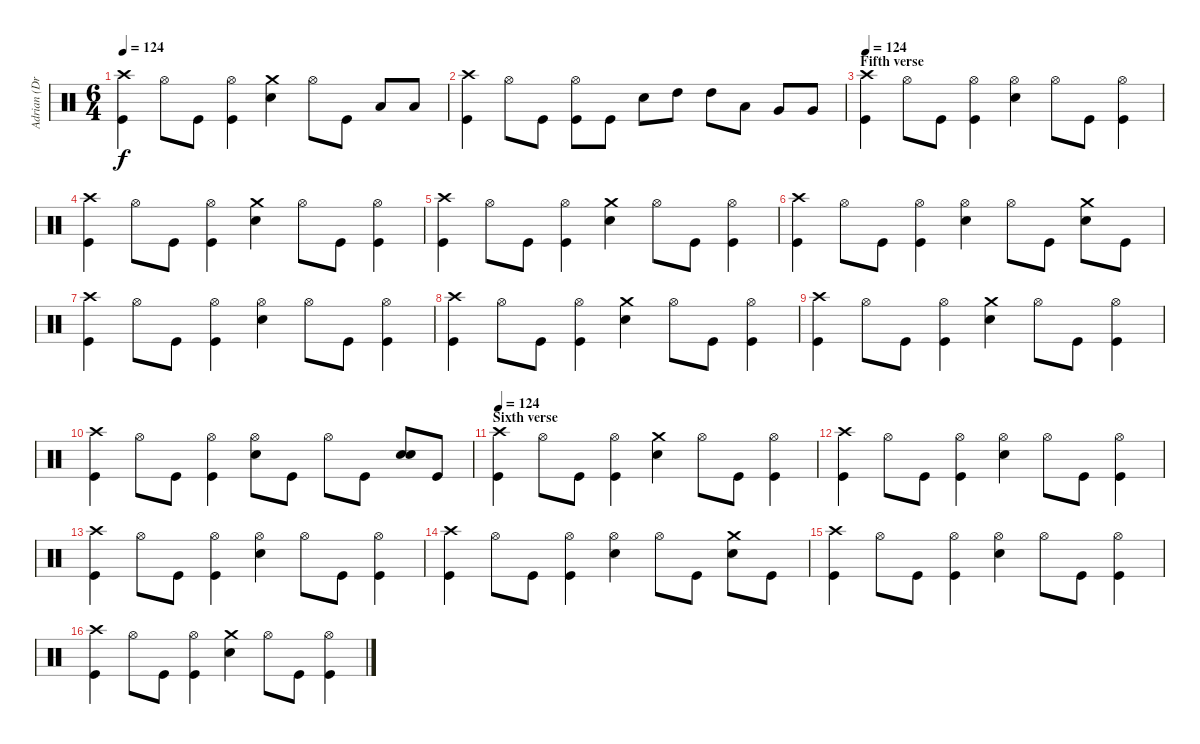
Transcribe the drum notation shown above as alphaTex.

\track ("Adrian (Drums)" "Adrian (Dr") {instrument percussion}
\staff {score}
\articulation defaults
\ts (6 4)
\tempo 124
\clef neutral
\ks c
("Crash high (hit)" "Kick (hit)").4{dy f} "Hi-Hat (open)".8 "Kick (hit)".8 ("Hi-Hat (open)" "Kick (hit)").4 ("Crash medium (hit)" "Electric Snare (hit)").4 "Hi-Hat (open)".8 "Kick (hit)".8 "Low Tom (hit)".8 "Low Tom (hit)".8 |
("Crash high (hit)" "Kick (hit)").4 "Hi-Hat (open)".8 "Kick (hit)".8 ("Hi-Hat (open)" "Kick (hit)").8 "Kick (hit)".8 "Electric Snare (hit)".8 "High Tom (hit)".8 "High Tom (hit)".8 "Low Tom (hit)".8 "Very Low Tom (hit)".8 "Very Low Tom (hit)".8 |
\section ("" "Fifth verse")
\tempo 124
("Crash high (hit)" "Kick (hit)").4 "Hi-Hat (open)".8 "Kick (hit)".8 ("Hi-Hat (open)" "Kick (hit)").4 ("Hi-Hat (open)" "Electric Snare (hit)").4 "Hi-Hat (open)".8 "Kick (hit)".8 ("Hi-Hat (open)" "Kick (hit)").4 |
("Crash high (hit)" "Kick (hit)").4 "Hi-Hat (open)".8 "Kick (hit)".8 ("Hi-Hat (open)" "Kick (hit)").4 ("Crash medium (hit)" "Electric Snare (hit)").4 "Hi-Hat (open)".8 "Kick (hit)".8 ("Hi-Hat (open)" "Kick (hit)").4 |
("Crash high (hit)" "Kick (hit)").4 "Hi-Hat (open)".8 "Kick (hit)".8 ("Hi-Hat (open)" "Kick (hit)").4 ("Crash medium (hit)" "Electric Snare (hit)").4 "Hi-Hat (open)".8 "Kick (hit)".8 ("Hi-Hat (open)" "Kick (hit)").4 |
("Crash high (hit)" "Kick (hit)").4 "Hi-Hat (open)".8 "Kick (hit)".8 ("Hi-Hat (open)" "Kick (hit)").4 ("Hi-Hat (open)" "Electric Snare (hit)").4 "Hi-Hat (open)".8 "Kick (hit)".8 ("Crash medium (hit)" "Electric Snare (hit)").8 "Kick (hit)".8 |
("Crash high (hit)" "Kick (hit)").4 "Hi-Hat (open)".8 "Kick (hit)".8 ("Hi-Hat (open)" "Kick (hit)").4 ("Hi-Hat (open)" "Electric Snare (hit)").4 "Hi-Hat (open)".8 "Kick (hit)".8 ("Hi-Hat (open)" "Kick (hit)").4 |
("Crash high (hit)" "Kick (hit)").4 "Hi-Hat (open)".8 "Kick (hit)".8 ("Hi-Hat (open)" "Kick (hit)").4 ("Crash medium (hit)" "Electric Snare (hit)").4 "Hi-Hat (open)".8 "Kick (hit)".8 ("Hi-Hat (open)" "Kick (hit)").4 |
("Crash high (hit)" "Kick (hit)").4 "Hi-Hat (open)".8 "Kick (hit)".8 ("Hi-Hat (open)" "Kick (hit)").4 ("Crash medium (hit)" "Electric Snare (hit)").4 "Hi-Hat (open)".8 "Kick (hit)".8 ("Hi-Hat (open)" "Kick (hit)").4 |
("Crash high (hit)" "Kick (hit)").4 "Hi-Hat (open)".8 "Kick (hit)".8 ("Hi-Hat (open)" "Kick (hit)").4 ("Hi-Hat (open)" "Electric Snare (hit)").8 "Kick (hit)".8 "Hi-Hat (open)".8 "Kick (hit)".8 ("Electric Snare (hit)" "Electric Snare (hit)").8{bu 120} "Kick (hit)".8 |
\section ("" "Sixth verse")
\tempo 124
("Crash high (hit)" "Kick (hit)").4 "Hi-Hat (open)".8 "Kick (hit)".8 ("Hi-Hat (open)" "Kick (hit)").4 ("Crash medium (hit)" "Electric Snare (hit)").4 "Hi-Hat (open)".8 "Kick (hit)".8 ("Hi-Hat (open)" "Kick (hit)").4 |
("Crash high (hit)" "Kick (hit)").4 "Hi-Hat (open)".8 "Kick (hit)".8 ("Hi-Hat (open)" "Kick (hit)").4 ("Hi-Hat (open)" "Electric Snare (hit)").4 "Hi-Hat (open)".8 "Kick (hit)".8 ("Hi-Hat (open)" "Kick (hit)").4 |
("Crash high (hit)" "Kick (hit)").4 "Hi-Hat (open)".8 "Kick (hit)".8 ("Hi-Hat (open)" "Kick (hit)").4 ("Hi-Hat (open)" "Electric Snare (hit)").4 "Hi-Hat (open)".8 "Kick (hit)".8 ("Hi-Hat (open)" "Kick (hit)").4 |
("Crash high (hit)" "Kick (hit)").4 "Hi-Hat (open)".8 "Kick (hit)".8 ("Hi-Hat (open)" "Kick (hit)").4 ("Hi-Hat (open)" "Electric Snare (hit)").4 "Hi-Hat (open)".8 "Kick (hit)".8 ("Crash medium (hit)" "Electric Snare (hit)").8 "Kick (hit)".8 |
("Crash high (hit)" "Kick (hit)").4 "Hi-Hat (open)".8 "Kick (hit)".8 ("Hi-Hat (open)" "Kick (hit)").4 ("Hi-Hat (open)" "Electric Snare (hit)").4 "Hi-Hat (open)".8 "Kick (hit)".8 ("Hi-Hat (open)" "Kick (hit)").4 |
("Crash high (hit)" "Kick (hit)").4 "Hi-Hat (open)".8 "Kick (hit)".8 ("Hi-Hat (open)" "Kick (hit)").4 ("Crash medium (hit)" "Electric Snare (hit)").4 "Hi-Hat (open)".8 "Kick (hit)".8 ("Hi-Hat (open)" "Kick (hit)").4
